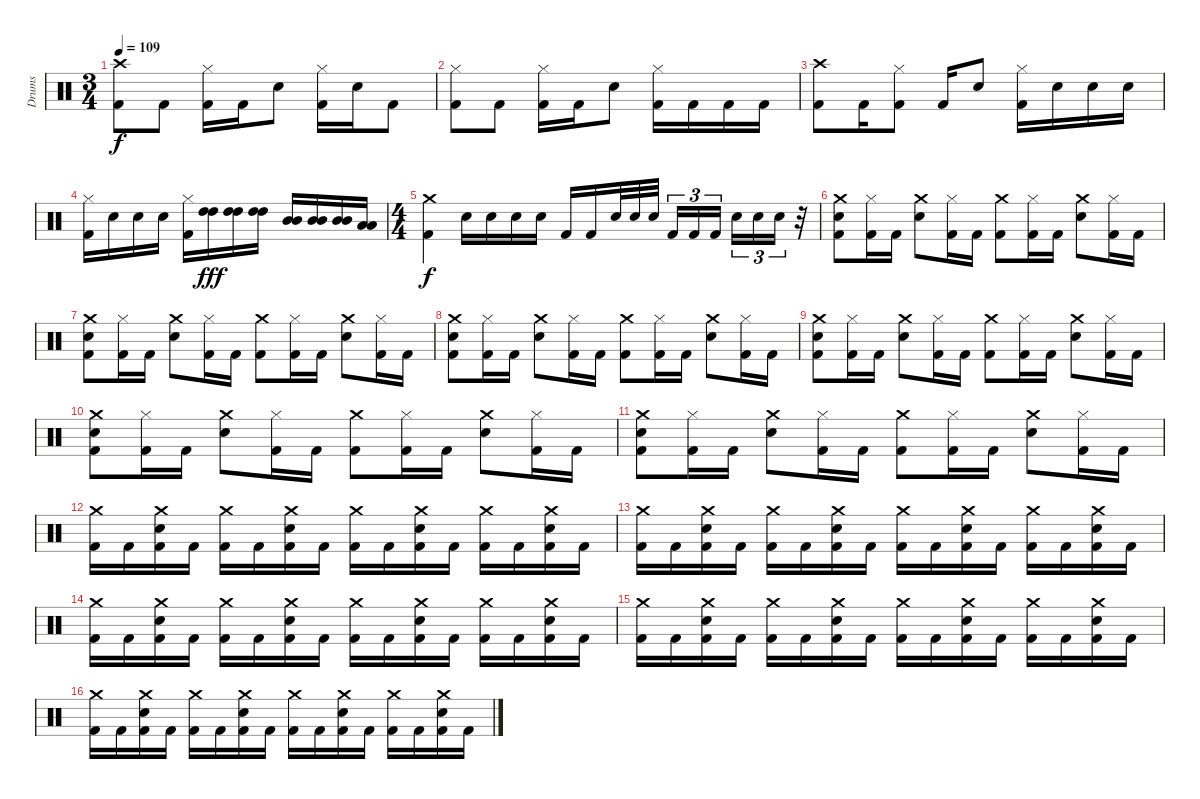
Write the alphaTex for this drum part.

\track ("Drums" "Drums") {instrument percussion}
\staff {score}
\articulation defaults
\ts (3 4)
\tempo 109
\clef neutral
\ks c
("Crash high (hit)" "Kick (hit) 2").8{dy f} "Kick (hit) 2".8 ("Hi-Hat (closed)" "Kick (hit) 2").16 "Kick (hit) 2".16 "Snare (hit) 2".8 ("Hi-Hat (closed)" "Kick (hit) 2").16 "Snare (hit) 2".16 "Kick (hit) 2".8 |
("Hi-Hat (closed)" "Kick (hit) 2").8 "Kick (hit) 2".8 ("Hi-Hat (closed)" "Kick (hit) 2").16 "Kick (hit) 2".16 "Snare (hit) 2".8 ("Hi-Hat (closed)" "Kick (hit) 2").16 "Kick (hit) 2".16 "Kick (hit) 2".16 "Kick (hit) 2".16 |
("Crash high (hit)" "Kick (hit) 2").8 "Kick (hit) 2".16 ("Hi-Hat (closed)" "Kick (hit) 2").8 "Kick (hit) 2".16 "Snare (hit) 2".8 ("Hi-Hat (closed)" "Kick (hit) 2").16 "Snare (hit) 2".16 "Snare (hit) 2".16 "Snare (hit) 2".16 |
("Hi-Hat (closed)" "Kick (hit) 2").16 "Snare (hit) 2".16 "Snare (hit) 2".16 "Snare (hit) 2".16 ("Hi-Hat (closed)" "Kick (hit) 2").16 ("High Tom (hit)" "High Tom (hit)").16{dy fff} ("High Tom (hit)" "High Tom (hit)").16 ("High Tom (hit)" "High Tom (hit)").16 ("Mid Tom (hit)" "Mid Tom (hit)").16 ("Mid Tom (hit)" "Mid Tom (hit)").16 ("Mid Tom (hit)" "Mid Tom (hit)").16 ("Low Tom (hit)" "Low Tom (hit)").16 |
\ts (4 4)
("Crash medium (hit)" "Kick (hit) 2").4{dy f} "Snare (hit) 2".16 "Snare (hit) 2".16 "Snare (hit) 2".16 "Snare (hit) 2".16 "Kick (hit) 2".16 "Kick (hit) 2".16 "Snare (hit) 2".32 "Snare (hit) 2".32 "Snare (hit) 2".32 "Kick (hit) 2".16{tu (3 2)} "Kick (hit) 2".16{tu (3 2)} "Kick (hit) 2".16{tu (3 2)} "Snare (hit) 2".16{tu (3 2)} "Snare (hit) 2".16{tu (3 2)} "Snare (hit) 2".16{tu (3 2)} r.32 |
("Crash medium (hit)" "Snare (hit) 2" "Kick (hit) 2").8 ("Hi-Hat (closed)" "Kick (hit) 2").16 "Kick (hit) 2".16 ("Crash medium (hit)" "Snare (hit) 2").8 ("Hi-Hat (closed)" "Kick (hit) 2").16 "Kick (hit) 2".16 ("Crash medium (hit)" "Kick (hit) 2").8 ("Hi-Hat (closed)" "Kick (hit) 2").16 "Kick (hit) 2".16 ("Crash medium (hit)" "Snare (hit) 2").8 ("Hi-Hat (closed)" "Kick (hit) 2").16 "Kick (hit) 2".16 |
("Crash medium (hit)" "Snare (hit) 2" "Kick (hit) 2").8 ("Hi-Hat (closed)" "Kick (hit) 2").16 "Kick (hit) 2".16 ("Crash medium (hit)" "Snare (hit) 2").8 ("Hi-Hat (closed)" "Kick (hit) 2").16 "Kick (hit) 2".16 ("Crash medium (hit)" "Kick (hit) 2").8 ("Hi-Hat (closed)" "Kick (hit) 2").16 "Kick (hit) 2".16 ("Crash medium (hit)" "Snare (hit) 2").8 ("Hi-Hat (closed)" "Kick (hit) 2").16 "Kick (hit) 2".16 |
("Crash medium (hit)" "Snare (hit) 2" "Kick (hit) 2").8 ("Hi-Hat (closed)" "Kick (hit) 2").16 "Kick (hit) 2".16 ("Crash medium (hit)" "Snare (hit) 2").8 ("Hi-Hat (closed)" "Kick (hit) 2").16 "Kick (hit) 2".16 ("Crash medium (hit)" "Kick (hit) 2").8 ("Hi-Hat (closed)" "Kick (hit) 2").16 "Kick (hit) 2".16 ("Crash medium (hit)" "Snare (hit) 2").8 ("Hi-Hat (closed)" "Kick (hit) 2").16 "Kick (hit) 2".16 |
("Crash medium (hit)" "Snare (hit) 2" "Kick (hit) 2").8 ("Hi-Hat (closed)" "Kick (hit) 2").16 "Kick (hit) 2".16 ("Crash medium (hit)" "Snare (hit) 2").8 ("Hi-Hat (closed)" "Kick (hit) 2").16 "Kick (hit) 2".16 ("Crash medium (hit)" "Kick (hit) 2").8 ("Hi-Hat (closed)" "Kick (hit) 2").16 "Kick (hit) 2".16 ("Crash medium (hit)" "Snare (hit) 2").8 ("Hi-Hat (closed)" "Kick (hit) 2").16 "Kick (hit) 2".16 |
("Crash medium (hit)" "Snare (hit) 2" "Kick (hit) 2").8 ("Hi-Hat (closed)" "Kick (hit) 2").16 "Kick (hit) 2".16 ("Crash medium (hit)" "Snare (hit) 2").8 ("Hi-Hat (closed)" "Kick (hit) 2").16 "Kick (hit) 2".16 ("Crash medium (hit)" "Kick (hit) 2").8 ("Hi-Hat (closed)" "Kick (hit) 2").16 "Kick (hit) 2".16 ("Crash medium (hit)" "Snare (hit) 2").8 ("Hi-Hat (closed)" "Kick (hit) 2").16 "Kick (hit) 2".16 |
("Crash medium (hit)" "Snare (hit) 2" "Kick (hit) 2").8 ("Hi-Hat (closed)" "Kick (hit) 2").16 "Kick (hit) 2".16 ("Crash medium (hit)" "Snare (hit) 2").8 ("Hi-Hat (closed)" "Kick (hit) 2").16 "Kick (hit) 2".16 ("Crash medium (hit)" "Kick (hit) 2").8 ("Hi-Hat (closed)" "Kick (hit) 2").16 "Kick (hit) 2".16 ("Crash medium (hit)" "Snare (hit) 2").8 ("Hi-Hat (closed)" "Kick (hit) 2").16 "Kick (hit) 2".16 |
("Crash medium (hit)" "Kick (hit) 2").16 "Kick (hit) 2".16 ("Crash medium (hit)" "Snare (hit) 2" "Kick (hit) 2").16 "Kick (hit) 2".16 ("Crash medium (hit)" "Kick (hit) 2").16 "Kick (hit) 2".16 ("Crash medium (hit)" "Snare (hit) 2" "Kick (hit) 2").16 "Kick (hit) 2".16 ("Crash medium (hit)" "Kick (hit) 2").16 "Kick (hit) 2".16 ("Crash medium (hit)" "Snare (hit) 2" "Kick (hit) 2").16 "Kick (hit) 2".16 ("Crash medium (hit)" "Kick (hit) 2").16 "Kick (hit) 2".16 ("Crash medium (hit)" "Snare (hit) 2" "Kick (hit) 2").16 "Kick (hit) 2".16 |
("Crash medium (hit)" "Kick (hit) 2").16 "Kick (hit) 2".16 ("Crash medium (hit)" "Snare (hit) 2" "Kick (hit) 2").16 "Kick (hit) 2".16 ("Crash medium (hit)" "Kick (hit) 2").16 "Kick (hit) 2".16 ("Crash medium (hit)" "Snare (hit) 2" "Kick (hit) 2").16 "Kick (hit) 2".16 ("Crash medium (hit)" "Kick (hit) 2").16 "Kick (hit) 2".16 ("Crash medium (hit)" "Snare (hit) 2" "Kick (hit) 2").16 "Kick (hit) 2".16 ("Crash medium (hit)" "Kick (hit) 2").16 "Kick (hit) 2".16 ("Crash medium (hit)" "Snare (hit) 2" "Kick (hit) 2").16 "Kick (hit) 2".16 |
("Crash medium (hit)" "Kick (hit) 2").16 "Kick (hit) 2".16 ("Crash medium (hit)" "Snare (hit) 2" "Kick (hit) 2").16 "Kick (hit) 2".16 ("Crash medium (hit)" "Kick (hit) 2").16 "Kick (hit) 2".16 ("Crash medium (hit)" "Snare (hit) 2" "Kick (hit) 2").16 "Kick (hit) 2".16 ("Crash medium (hit)" "Kick (hit) 2").16 "Kick (hit) 2".16 ("Crash medium (hit)" "Snare (hit) 2" "Kick (hit) 2").16 "Kick (hit) 2".16 ("Crash medium (hit)" "Kick (hit) 2").16 "Kick (hit) 2".16 ("Crash medium (hit)" "Snare (hit) 2" "Kick (hit) 2").16 "Kick (hit) 2".16 |
("Crash medium (hit)" "Kick (hit) 2").16 "Kick (hit) 2".16 ("Crash medium (hit)" "Snare (hit) 2" "Kick (hit) 2").16 "Kick (hit) 2".16 ("Crash medium (hit)" "Kick (hit) 2").16 "Kick (hit) 2".16 ("Crash medium (hit)" "Snare (hit) 2" "Kick (hit) 2").16 "Kick (hit) 2".16 ("Crash medium (hit)" "Kick (hit) 2").16 "Kick (hit) 2".16 ("Crash medium (hit)" "Snare (hit) 2" "Kick (hit) 2").16 "Kick (hit) 2".16 ("Crash medium (hit)" "Kick (hit) 2").16 "Kick (hit) 2".16 ("Crash medium (hit)" "Snare (hit) 2" "Kick (hit) 2").16 "Kick (hit) 2".16 |
("Crash medium (hit)" "Kick (hit) 2").16 "Kick (hit) 2".16 ("Crash medium (hit)" "Snare (hit) 2" "Kick (hit) 2").16 "Kick (hit) 2".16 ("Crash medium (hit)" "Kick (hit) 2").16 "Kick (hit) 2".16 ("Crash medium (hit)" "Snare (hit) 2" "Kick (hit) 2").16 "Kick (hit) 2".16 ("Crash medium (hit)" "Kick (hit) 2").16 "Kick (hit) 2".16 ("Crash medium (hit)" "Snare (hit) 2" "Kick (hit) 2").16 "Kick (hit) 2".16 ("Crash medium (hit)" "Kick (hit) 2").16 "Kick (hit) 2".16 ("Crash medium (hit)" "Snare (hit) 2" "Kick (hit) 2").16 "Kick (hit) 2".16
